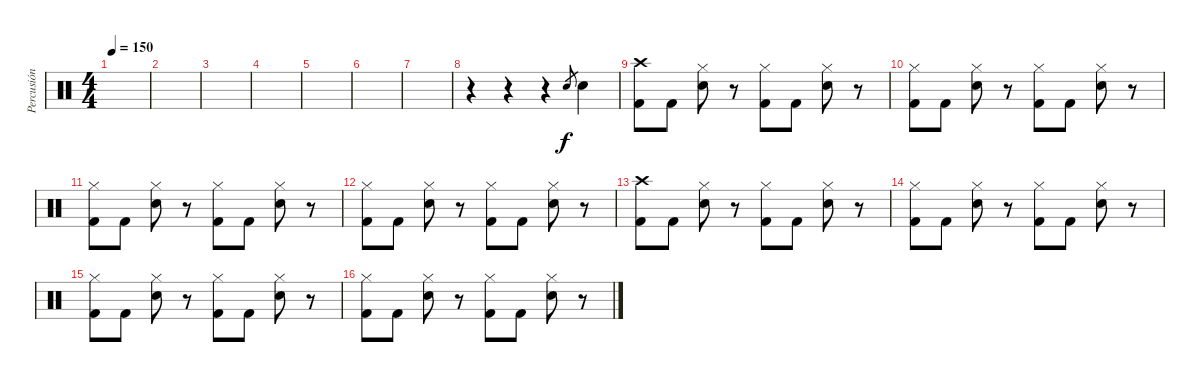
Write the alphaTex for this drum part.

\track ("Percusión" "Percusión") {instrument percussion}
\staff {score}
\articulation defaults
\ts (4 4)
\tempo 150
\clef neutral
\ks c
|
|
|
|
|
|
|
r.4 r.4 r.4 "Electric Snare (hit)".8{gr} "Electric Snare (hit)".4 |
("Crash high (hit)" "Kick (hit) 2").8 "Kick (hit) 2".8 ("Hi-Hat (closed)" "Electric Snare (hit)").8 r.8 ("Hi-Hat (closed)" "Kick (hit) 2").8 "Kick (hit) 2".8 ("Hi-Hat (closed)" "Electric Snare (hit)").8 r.8 |
("Hi-Hat (closed)" "Kick (hit) 2").8 "Kick (hit) 2".8 ("Hi-Hat (closed)" "Electric Snare (hit)").8 r.8 ("Hi-Hat (closed)" "Kick (hit) 2").8 "Kick (hit) 2".8 ("Hi-Hat (closed)" "Electric Snare (hit)").8 r.8 |
("Hi-Hat (closed)" "Kick (hit) 2").8 "Kick (hit) 2".8 ("Hi-Hat (closed)" "Electric Snare (hit)").8 r.8 ("Hi-Hat (closed)" "Kick (hit) 2").8 "Kick (hit) 2".8 ("Hi-Hat (closed)" "Electric Snare (hit)").8 r.8 |
("Hi-Hat (closed)" "Kick (hit) 2").8 "Kick (hit) 2".8 ("Hi-Hat (closed)" "Electric Snare (hit)").8 r.8 ("Hi-Hat (closed)" "Kick (hit) 2").8 "Kick (hit) 2".8 ("Hi-Hat (closed)" "Electric Snare (hit)").8 r.8 |
("Crash high (hit)" "Kick (hit) 2").8 "Kick (hit) 2".8 ("Hi-Hat (closed)" "Electric Snare (hit)").8 r.8 ("Hi-Hat (closed)" "Kick (hit) 2").8 "Kick (hit) 2".8 ("Hi-Hat (closed)" "Electric Snare (hit)").8 r.8 |
("Hi-Hat (closed)" "Kick (hit) 2").8 "Kick (hit) 2".8 ("Hi-Hat (closed)" "Electric Snare (hit)").8 r.8 ("Hi-Hat (closed)" "Kick (hit) 2").8 "Kick (hit) 2".8 ("Hi-Hat (closed)" "Electric Snare (hit)").8 r.8 |
("Hi-Hat (closed)" "Kick (hit) 2").8 "Kick (hit) 2".8 ("Hi-Hat (closed)" "Electric Snare (hit)").8 r.8 ("Hi-Hat (closed)" "Kick (hit) 2").8 "Kick (hit) 2".8 ("Hi-Hat (closed)" "Electric Snare (hit)").8 r.8 |
("Hi-Hat (closed)" "Kick (hit) 2").8 "Kick (hit) 2".8 ("Hi-Hat (closed)" "Electric Snare (hit)").8 r.8 ("Hi-Hat (closed)" "Kick (hit) 2").8 "Kick (hit) 2".8 ("Hi-Hat (closed)" "Electric Snare (hit)").8 r.8
